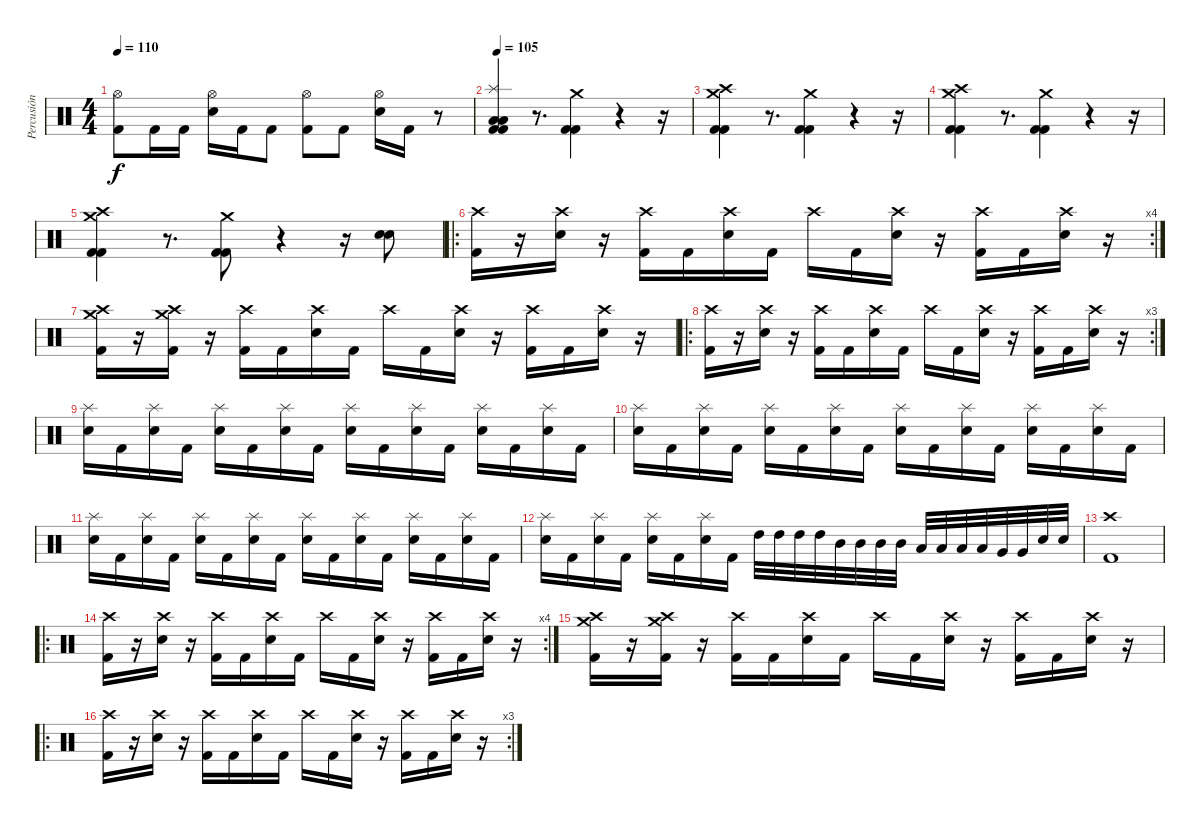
\track ("Percusión" "Percusión") {instrument percussion}
\staff {score}
\articulation defaults
\ts (4 4)
\tempo 110
\clef neutral
\ks c
("Hi-Hat (open)" "Kick (hit) 2").8{dy f} "Kick (hit) 2".16 "Kick (hit) 2".16 ("Hi-Hat (open)" "Electric Snare (hit)").16 "Kick (hit) 2".16 "Kick (hit) 2".8 ("Hi-Hat (open)" "Kick (hit) 2").8 "Kick (hit) 2".8 ("Hi-Hat (open)" "Electric Snare (hit)").16 "Kick (hit) 2".16 r.8 |
\tempo 105
("Splash (hit)" "Low Floor Tom (hit)" "Low Floor Tom (hit)" "Kick (hit) 2" "Kick (hit) 2").4 r.8{d} ("Crash medium (hit)" "Kick (hit) 2" "Kick (hit) 2").4 r.4 r.16 |
("Crash medium (hit)" "Crash high (hit)" "Kick (hit) 2" "Kick (hit) 2").4 r.8{d} ("Crash medium (hit)" "Kick (hit) 2" "Kick (hit) 2").4 r.4 r.16 |
("Crash medium (hit)" "Crash high (hit)" "Kick (hit) 2" "Kick (hit) 2").4 r.8{d} ("Crash medium (hit)" "Kick (hit) 2" "Kick (hit) 2").4 r.4 r.16 |
("Crash medium (hit)" "Crash high (hit)" "Kick (hit) 2" "Kick (hit) 2").4 r.8{d} ("Crash medium (hit)" "Kick (hit) 2" "Kick (hit) 2").8 r.4 r.16 ("Electric Snare (hit)" "Electric Snare (hit)").8 |
\ro
\rc 4
("Crash high (hit)" "Kick (hit) 2").16 r.16 ("Crash high (hit)" "Electric Snare (hit)").16 r.16 ("Crash high (hit)" "Kick (hit) 2").16 "Kick (hit) 2".16 ("Crash high (hit)" "Electric Snare (hit)").16 "Kick (hit) 2".16 "Crash high (hit)".16 "Kick (hit) 2".16 ("Crash high (hit)" "Electric Snare (hit)").16 r.16 ("Crash high (hit)" "Kick (hit) 2").16 "Kick (hit) 2".16 ("Crash high (hit)" "Electric Snare (hit)").16 r.16 |
("Crash high (hit)" "Crash medium (hit)" "Kick (hit) 2").16 r.16 ("Crash high (hit)" "Crash medium (hit)" "Kick (hit) 2").16 r.16 ("Crash high (hit)" "Kick (hit) 2").16 "Kick (hit) 2".16 ("Crash high (hit)" "Electric Snare (hit)").16 "Kick (hit) 2".16 "Crash high (hit)".16 "Kick (hit) 2".16 ("Crash high (hit)" "Electric Snare (hit)").16 r.16 ("Crash high (hit)" "Kick (hit) 2").16 "Kick (hit) 2".16 ("Crash high (hit)" "Electric Snare (hit)").16 r.16 |
\ro
\rc 3
("Crash high (hit)" "Kick (hit) 2").16 r.16 ("Crash high (hit)" "Electric Snare (hit)").16 r.16 ("Crash high (hit)" "Kick (hit) 2").16 "Kick (hit) 2".16 ("Crash high (hit)" "Electric Snare (hit)").16 "Kick (hit) 2".16 "Crash high (hit)".16 "Kick (hit) 2".16 ("Crash high (hit)" "Electric Snare (hit)").16 r.16 ("Crash high (hit)" "Kick (hit) 2").16 "Kick (hit) 2".16 ("Crash high (hit)" "Electric Snare (hit)").16 r.16 |
("Splash (hit)" "Electric Snare (hit)").16 "Kick (hit) 2".16 ("Splash (hit)" "Electric Snare (hit)").16 "Kick (hit) 2".16 ("Splash (hit)" "Electric Snare (hit)").16 "Kick (hit) 2".16 ("Splash (hit)" "Electric Snare (hit)").16 "Kick (hit) 2".16 ("Splash (hit)" "Electric Snare (hit)").16 "Kick (hit) 2".16 ("Splash (hit)" "Electric Snare (hit)").16 "Kick (hit) 2".16 ("Splash (hit)" "Electric Snare (hit)").16 "Kick (hit) 2".16 ("Splash (hit)" "Electric Snare (hit)").16 "Kick (hit) 2".16 |
("Splash (hit)" "Electric Snare (hit)").16 "Kick (hit) 2".16 ("Splash (hit)" "Electric Snare (hit)").16 "Kick (hit) 2".16 ("Splash (hit)" "Electric Snare (hit)").16 "Kick (hit) 2".16 ("Splash (hit)" "Electric Snare (hit)").16 "Kick (hit) 2".16 ("Splash (hit)" "Electric Snare (hit)").16 "Kick (hit) 2".16 ("Splash (hit)" "Electric Snare (hit)").16 "Kick (hit) 2".16 ("Splash (hit)" "Electric Snare (hit)").16 "Kick (hit) 2".16 ("Splash (hit)" "Electric Snare (hit)").16 "Kick (hit) 2".16 |
("Splash (hit)" "Electric Snare (hit)").16 "Kick (hit) 2".16 ("Splash (hit)" "Electric Snare (hit)").16 "Kick (hit) 2".16 ("Splash (hit)" "Electric Snare (hit)").16 "Kick (hit) 2".16 ("Splash (hit)" "Electric Snare (hit)").16 "Kick (hit) 2".16 ("Splash (hit)" "Electric Snare (hit)").16 "Kick (hit) 2".16 ("Splash (hit)" "Electric Snare (hit)").16 "Kick (hit) 2".16 ("Splash (hit)" "Electric Snare (hit)").16 "Kick (hit) 2".16 ("Splash (hit)" "Electric Snare (hit)").16 "Kick (hit) 2".16 |
("Splash (hit)" "Electric Snare (hit)").16 "Kick (hit) 2".16 ("Splash (hit)" "Electric Snare (hit)").16 "Kick (hit) 2".16 ("Splash (hit)" "Electric Snare (hit)").16 "Kick (hit) 2".16 ("Splash (hit)" "Electric Snare (hit)").16 "Kick (hit) 2".16 "High Tom (hit)".32 "High Tom (hit)".32 "High Tom (hit)".32 "High Tom (hit)".32 "Mid Tom (hit)".32 "Mid Tom (hit)".32 "Mid Tom (hit)".32 "Mid Tom (hit)".32 "Low Tom (hit)".32 "Low Tom (hit)".32 "Low Tom (hit)".32 "Low Tom (hit)".32 "Very Low Tom (hit)".32 "Very Low Tom (hit)".32 "Electric Snare (hit)".32 "Electric Snare (hit)".32 |
("Crash high (hit)" "Kick (hit) 2").1 |
\ro
\rc 4
("Crash high (hit)" "Kick (hit) 2").16 r.16 ("Crash high (hit)" "Electric Snare (hit)").16 r.16 ("Crash high (hit)" "Kick (hit) 2").16 "Kick (hit) 2".16 ("Crash high (hit)" "Electric Snare (hit)").16 "Kick (hit) 2".16 "Crash high (hit)".16 "Kick (hit) 2".16 ("Crash high (hit)" "Electric Snare (hit)").16 r.16 ("Crash high (hit)" "Kick (hit) 2").16 "Kick (hit) 2".16 ("Crash high (hit)" "Electric Snare (hit)").16 r.16 |
("Crash high (hit)" "Crash medium (hit)" "Kick (hit) 2").16 r.16 ("Crash high (hit)" "Crash medium (hit)" "Kick (hit) 2").16 r.16 ("Crash high (hit)" "Kick (hit) 2").16 "Kick (hit) 2".16 ("Crash high (hit)" "Electric Snare (hit)").16 "Kick (hit) 2".16 "Crash high (hit)".16 "Kick (hit) 2".16 ("Crash high (hit)" "Electric Snare (hit)").16 r.16 ("Crash high (hit)" "Kick (hit) 2").16 "Kick (hit) 2".16 ("Crash high (hit)" "Electric Snare (hit)").16 r.16 |
\ro
\rc 3
("Crash high (hit)" "Kick (hit) 2").16 r.16 ("Crash high (hit)" "Electric Snare (hit)").16 r.16 ("Crash high (hit)" "Kick (hit) 2").16 "Kick (hit) 2".16 ("Crash high (hit)" "Electric Snare (hit)").16 "Kick (hit) 2".16 "Crash high (hit)".16 "Kick (hit) 2".16 ("Crash high (hit)" "Electric Snare (hit)").16 r.16 ("Crash high (hit)" "Kick (hit) 2").16 "Kick (hit) 2".16 ("Crash high (hit)" "Electric Snare (hit)").16 r.16
